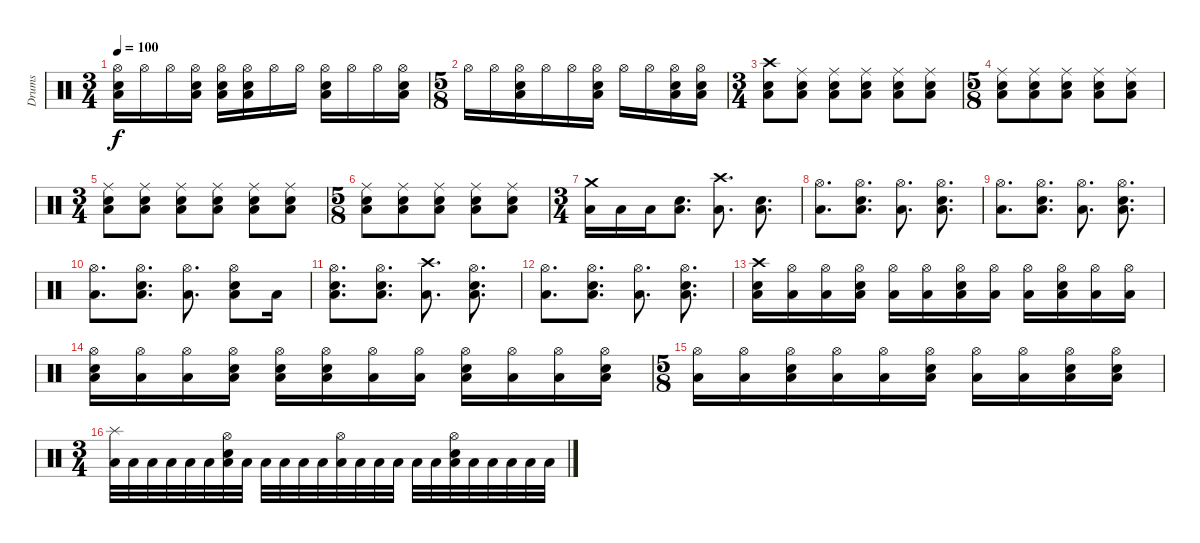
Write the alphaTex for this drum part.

\track ("Drums" "Drums") {instrument percussion}
\staff {score}
\articulation defaults
\ts (3 4)
\tempo 100
\clef neutral
\ks c
("Hi-Hat (open)" "Electric Snare (hit)" "Low Floor Tom (hit)").16{dy f} "Hi-Hat (open)".16 "Hi-Hat (open)".16 ("Hi-Hat (open)" "Electric Snare (hit)" "Low Floor Tom (hit)").16 ("Hi-Hat (open)" "Electric Snare (hit)" "Low Floor Tom (hit)").16 ("Hi-Hat (open)" "Electric Snare (hit)" "Low Floor Tom (hit)").16 "Hi-Hat (open)".16 "Hi-Hat (open)".16 ("Hi-Hat (open)" "Electric Snare (hit)" "Low Floor Tom (hit)").16 "Hi-Hat (open)".16 "Hi-Hat (open)".16 ("Hi-Hat (open)" "Electric Snare (hit)" "Low Floor Tom (hit)").16 |
\ts (5 8)
"Hi-Hat (open)".16 "Hi-Hat (open)".16 ("Hi-Hat (open)" "Electric Snare (hit)" "Low Floor Tom (hit)").16 "Hi-Hat (open)".16 "Hi-Hat (open)".16 ("Hi-Hat (open)" "Electric Snare (hit)" "Low Floor Tom (hit)").16 "Hi-Hat (open)".16 "Hi-Hat (open)".16 ("Hi-Hat (open)" "Electric Snare (hit)" "Low Floor Tom (hit)").16 ("Hi-Hat (open)" "Electric Snare (hit)" "Low Floor Tom (hit)").16 |
\ts (3 4)
("Crash high (hit)" "Electric Snare (hit)" "Low Floor Tom (hit)").8 ("Ride (middle)" "Electric Snare (hit)" "Low Floor Tom (hit)").8 ("Ride (middle)" "Electric Snare (hit)" "Low Floor Tom (hit)").8 ("Ride (middle)" "Electric Snare (hit)" "Low Floor Tom (hit)").8 ("Ride (middle)" "Electric Snare (hit)" "Low Floor Tom (hit)").8 ("Ride (middle)" "Electric Snare (hit)" "Low Floor Tom (hit)").8 |
\ts (5 8)
("Ride (middle)" "Electric Snare (hit)" "Low Floor Tom (hit)").8 ("Ride (middle)" "Electric Snare (hit)" "Low Floor Tom (hit)").8 ("Ride (middle)" "Electric Snare (hit)" "Low Floor Tom (hit)").8 ("Ride (middle)" "Electric Snare (hit)" "Low Floor Tom (hit)").8 ("Ride (middle)" "Electric Snare (hit)" "Low Floor Tom (hit)").8 |
\ts (3 4)
("Ride (middle)" "Electric Snare (hit)" "Low Floor Tom (hit)").8 ("Ride (middle)" "Electric Snare (hit)" "Low Floor Tom (hit)").8 ("Ride (middle)" "Electric Snare (hit)" "Low Floor Tom (hit)").8 ("Ride (middle)" "Electric Snare (hit)" "Low Floor Tom (hit)").8 ("Ride (middle)" "Electric Snare (hit)" "Low Floor Tom (hit)").8 ("Ride (middle)" "Electric Snare (hit)" "Low Floor Tom (hit)").8 |
\ts (5 8)
("Ride (middle)" "Electric Snare (hit)" "Low Floor Tom (hit)").8 ("Ride (middle)" "Electric Snare (hit)" "Low Floor Tom (hit)").8 ("Ride (middle)" "Electric Snare (hit)" "Low Floor Tom (hit)").8 ("Ride (middle)" "Electric Snare (hit)" "Low Floor Tom (hit)").8 ("Ride (middle)" "Electric Snare (hit)" "Low Floor Tom (hit)").8 |
\ts (3 4)
("Crash medium (hit)" "Low Floor Tom (hit)").16 "Low Floor Tom (hit)".16 "Low Floor Tom (hit)".16 ("Electric Snare (hit)" "Low Floor Tom (hit)").8{d} ("Crash high (hit)" "Low Floor Tom (hit)").8{d} ("Electric Snare (hit)" "Low Floor Tom (hit)").8{d} |
("Hi-Hat (open)" "Low Floor Tom (hit)").8{d} ("Hi-Hat (open)" "Electric Snare (hit)" "Low Floor Tom (hit)").8{d} ("Hi-Hat (open)" "Low Floor Tom (hit)").8{d} ("Hi-Hat (open)" "Electric Snare (hit)" "Low Floor Tom (hit)").8{d} |
("Hi-Hat (open)" "Low Floor Tom (hit)").8{d} ("Hi-Hat (open)" "Electric Snare (hit)" "Low Floor Tom (hit)").8{d} ("Hi-Hat (open)" "Low Floor Tom (hit)").8{d} ("Hi-Hat (open)" "Electric Snare (hit)" "Low Floor Tom (hit)").8{d} |
("Hi-Hat (open)" "Low Floor Tom (hit)").8{d} ("Hi-Hat (open)" "Electric Snare (hit)" "Low Floor Tom (hit)").8{d} ("Hi-Hat (open)" "Low Floor Tom (hit)").8{d} ("Hi-Hat (open)" "Electric Snare (hit)" "Low Floor Tom (hit)").8 "Low Floor Tom (hit)".16 |
("Hi-Hat (open)" "Electric Snare (hit)" "Low Floor Tom (hit)").8{d} ("Hi-Hat (open)" "Electric Snare (hit)" "Low Floor Tom (hit)").8{d} ("Crash high (hit)" "Low Floor Tom (hit)").8{d} ("Hi-Hat (open)" "Electric Snare (hit)" "Low Floor Tom (hit)").8{d} |
("Hi-Hat (open)" "Low Floor Tom (hit)").8{d} ("Hi-Hat (open)" "Electric Snare (hit)" "Low Floor Tom (hit)").8{d} ("Hi-Hat (open)" "Low Floor Tom (hit)").8{d} ("Hi-Hat (open)" "Electric Snare (hit)" "Low Floor Tom (hit)").8{d} |
("Crash high (hit)" "Electric Snare (hit)" "Low Floor Tom (hit)").16 ("Hi-Hat (open)" "Low Floor Tom (hit)").16 ("Hi-Hat (open)" "Low Floor Tom (hit)").16 ("Hi-Hat (open)" "Electric Snare (hit)" "Low Floor Tom (hit)").16 ("Hi-Hat (open)" "Low Floor Tom (hit)").16 ("Hi-Hat (open)" "Low Floor Tom (hit)").16 ("Hi-Hat (open)" "Electric Snare (hit)" "Low Floor Tom (hit)").16 ("Hi-Hat (open)" "Low Floor Tom (hit)").16 ("Hi-Hat (open)" "Low Floor Tom (hit)").16 ("Hi-Hat (open)" "Electric Snare (hit)" "Low Floor Tom (hit)").16 ("Hi-Hat (open)" "Low Floor Tom (hit)").16 ("Hi-Hat (open)" "Low Floor Tom (hit)").16 |
("Hi-Hat (open)" "Electric Snare (hit)" "Low Floor Tom (hit)").16 ("Hi-Hat (open)" "Low Floor Tom (hit)").16 ("Hi-Hat (open)" "Low Floor Tom (hit)").16 ("Hi-Hat (open)" "Electric Snare (hit)" "Low Floor Tom (hit)").16 ("Hi-Hat (open)" "Electric Snare (hit)" "Low Floor Tom (hit)").16 ("Hi-Hat (open)" "Electric Snare (hit)" "Low Floor Tom (hit)").16 ("Hi-Hat (open)" "Low Floor Tom (hit)").16 ("Hi-Hat (open)" "Low Floor Tom (hit)").16 ("Hi-Hat (open)" "Electric Snare (hit)" "Low Floor Tom (hit)").16 ("Hi-Hat (open)" "Low Floor Tom (hit)").16 ("Hi-Hat (open)" "Low Floor Tom (hit)").16 ("Hi-Hat (open)" "Electric Snare (hit)" "Low Floor Tom (hit)").16 |
\ts (5 8)
("Hi-Hat (open)" "Low Floor Tom (hit)").16 ("Hi-Hat (open)" "Low Floor Tom (hit)").16 ("Hi-Hat (open)" "Electric Snare (hit)" "Low Floor Tom (hit)").16 ("Hi-Hat (open)" "Low Floor Tom (hit)").16 ("Hi-Hat (open)" "Low Floor Tom (hit)").16 ("Hi-Hat (open)" "Electric Snare (hit)" "Low Floor Tom (hit)").16 ("Hi-Hat (open)" "Low Floor Tom (hit)").16 ("Hi-Hat (open)" "Low Floor Tom (hit)").16 ("Hi-Hat (open)" "Electric Snare (hit)" "Low Floor Tom (hit)").16 ("Hi-Hat (open)" "Electric Snare (hit)" "Low Floor Tom (hit)").16 |
\ts (3 4)
("Splash (hit)" "Low Floor Tom (hit)").32 "Low Floor Tom (hit)".32 "Low Floor Tom (hit)".32 "Low Floor Tom (hit)".32 "Low Floor Tom (hit)".32 "Low Floor Tom (hit)".32 ("Hi-Hat (open)" "Electric Snare (hit)" "Low Floor Tom (hit)").32 "Low Floor Tom (hit)".32 "Low Floor Tom (hit)".32 "Low Floor Tom (hit)".32 "Low Floor Tom (hit)".32 "Low Floor Tom (hit)".32 ("Hi-Hat (open)" "Low Floor Tom (hit)").32 "Low Floor Tom (hit)".32 "Low Floor Tom (hit)".32 "Low Floor Tom (hit)".32 "Low Floor Tom (hit)".32 "Low Floor Tom (hit)".32 ("Hi-Hat (open)" "Electric Snare (hit)" "Low Floor Tom (hit)").32 "Low Floor Tom (hit)".32 "Low Floor Tom (hit)".32 "Low Floor Tom (hit)".32 "Low Floor Tom (hit)".32 "Low Floor Tom (hit)".32
